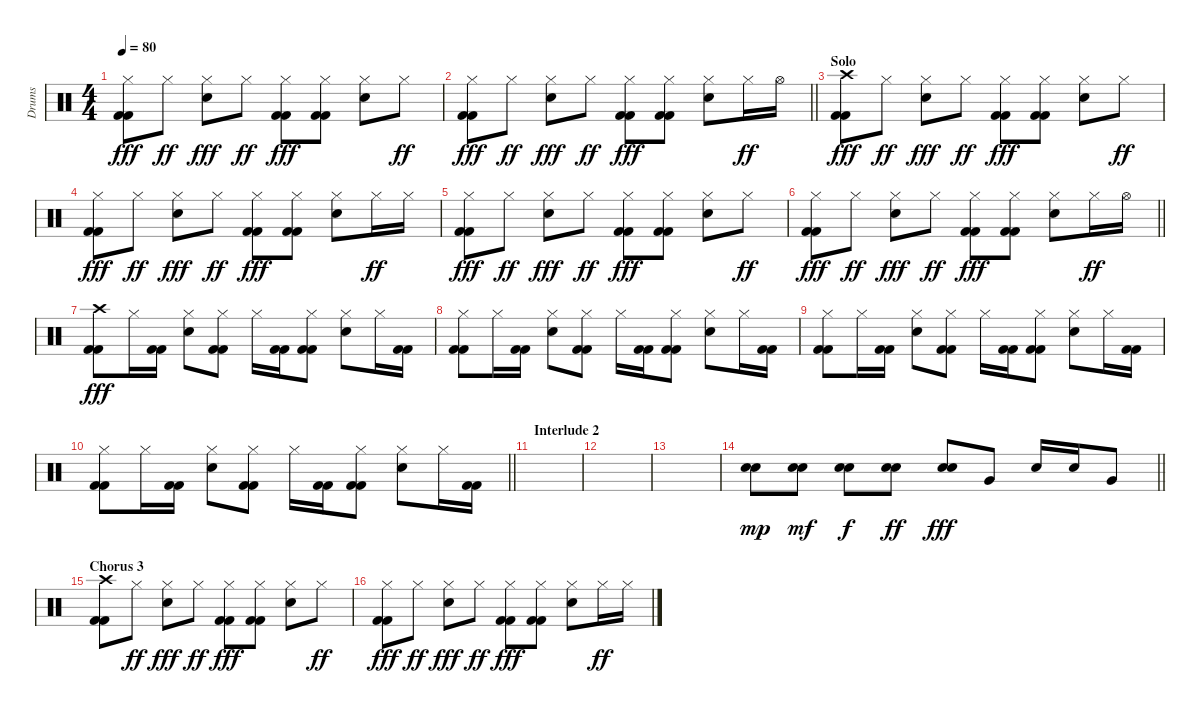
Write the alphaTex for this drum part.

\track ("Drums" "Drums") {instrument percussion}
\staff {score}
\articulation defaults
\ts (4 4)
\tempo 80
\clef neutral
\ks c
("Hi-Hat (closed)" "Kick (hit) 2" "Kick (hit) 2").8{dy fff} "Hi-Hat (closed)".8{dy ff} ("Hi-Hat (closed)" "Electric Snare (hit)").8{dy fff} "Hi-Hat (closed)".8{dy ff} ("Hi-Hat (closed)" "Kick (hit) 2" "Kick (hit) 2").8{dy fff} ("Hi-Hat (closed)" "Kick (hit) 2" "Kick (hit) 2").8 ("Hi-Hat (closed)" "Electric Snare (hit)").8 "Hi-Hat (closed)".8{dy ff} |
\barLineRight lightlight
("Hi-Hat (closed)" "Kick (hit) 2" "Kick (hit) 2").8{dy fff} "Hi-Hat (closed)".8{dy ff} ("Hi-Hat (closed)" "Electric Snare (hit)").8{dy fff} "Hi-Hat (closed)".8{dy ff} ("Hi-Hat (closed)" "Kick (hit) 2" "Kick (hit) 2").8{dy fff} ("Hi-Hat (closed)" "Kick (hit) 2" "Kick (hit) 2").8 ("Hi-Hat (closed)" "Electric Snare (hit)").8 "Hi-Hat (closed)".16{dy ff} "Hi-Hat (open)".16 |
\section ("" "Solo")
("Crash high (hit)" "Kick (hit) 2" "Kick (hit) 2").8{dy fff} "Hi-Hat (closed)".8{dy ff} ("Hi-Hat (closed)" "Electric Snare (hit)").8{dy fff} "Hi-Hat (closed)".8{dy ff} ("Hi-Hat (closed)" "Kick (hit) 2" "Kick (hit) 2").8{dy fff} ("Hi-Hat (closed)" "Kick (hit) 2" "Kick (hit) 2").8 ("Hi-Hat (closed)" "Electric Snare (hit)").8 "Hi-Hat (closed)".8{dy ff} |
("Hi-Hat (closed)" "Kick (hit) 2" "Kick (hit) 2").8{dy fff} "Hi-Hat (closed)".8{dy ff} ("Hi-Hat (closed)" "Electric Snare (hit)").8{dy fff} "Hi-Hat (closed)".8{dy ff} ("Hi-Hat (closed)" "Kick (hit) 2" "Kick (hit) 2").8{dy fff} ("Hi-Hat (closed)" "Kick (hit) 2" "Kick (hit) 2").8 ("Hi-Hat (closed)" "Electric Snare (hit)").8 "Hi-Hat (closed)".16{dy ff} "Hi-Hat (closed)".16 |
("Hi-Hat (closed)" "Kick (hit) 2" "Kick (hit) 2").8{dy fff} "Hi-Hat (closed)".8{dy ff} ("Hi-Hat (closed)" "Electric Snare (hit)").8{dy fff} "Hi-Hat (closed)".8{dy ff} ("Hi-Hat (closed)" "Kick (hit) 2" "Kick (hit) 2").8{dy fff} ("Hi-Hat (closed)" "Kick (hit) 2" "Kick (hit) 2").8 ("Hi-Hat (closed)" "Electric Snare (hit)").8 "Hi-Hat (closed)".8{dy ff} |
\barLineRight lightlight
("Hi-Hat (closed)" "Kick (hit) 2" "Kick (hit) 2").8{dy fff} "Hi-Hat (closed)".8{dy ff} ("Hi-Hat (closed)" "Electric Snare (hit)").8{dy fff} "Hi-Hat (closed)".8{dy ff} ("Hi-Hat (closed)" "Kick (hit) 2" "Kick (hit) 2").8{dy fff} ("Hi-Hat (closed)" "Kick (hit) 2" "Kick (hit) 2").8 ("Hi-Hat (closed)" "Electric Snare (hit)").8 "Hi-Hat (closed)".16{dy ff} "Hi-Hat (open)".16 |
("Crash high (hit)" "Kick (hit) 2" "Kick (hit) 2").8{dy fff} "Hi-Hat (closed)".16 ("Kick (hit) 2" "Kick (hit) 2").16 ("Hi-Hat (closed)" "Electric Snare (hit)").8 ("Hi-Hat (closed)" "Kick (hit) 2" "Kick (hit) 2").8 "Hi-Hat (closed)".16 ("Kick (hit) 2" "Kick (hit) 2").16 ("Hi-Hat (closed)" "Kick (hit) 2" "Kick (hit) 2").8 ("Hi-Hat (closed)" "Electric Snare (hit)").8 "Hi-Hat (closed)".16 ("Kick (hit) 2" "Kick (hit) 2").16 |
("Hi-Hat (closed)" "Kick (hit) 2" "Kick (hit) 2").8 "Hi-Hat (closed)".16 ("Kick (hit) 2" "Kick (hit) 2").16 ("Hi-Hat (closed)" "Electric Snare (hit)").8 ("Hi-Hat (closed)" "Kick (hit) 2" "Kick (hit) 2").8 "Hi-Hat (closed)".16 ("Kick (hit) 2" "Kick (hit) 2").16 ("Hi-Hat (closed)" "Kick (hit) 2" "Kick (hit) 2").8 ("Hi-Hat (closed)" "Electric Snare (hit)").8 "Hi-Hat (closed)".16 ("Kick (hit) 2" "Kick (hit) 2").16 |
("Hi-Hat (closed)" "Kick (hit) 2" "Kick (hit) 2").8 "Hi-Hat (closed)".16 ("Kick (hit) 2" "Kick (hit) 2").16 ("Hi-Hat (closed)" "Electric Snare (hit)").8 ("Hi-Hat (closed)" "Kick (hit) 2" "Kick (hit) 2").8 "Hi-Hat (closed)".16 ("Kick (hit) 2" "Kick (hit) 2").16 ("Hi-Hat (closed)" "Kick (hit) 2" "Kick (hit) 2").8 ("Hi-Hat (closed)" "Electric Snare (hit)").8 "Hi-Hat (closed)".16 ("Kick (hit) 2" "Kick (hit) 2").16 |
\barLineRight lightlight
("Hi-Hat (closed)" "Kick (hit) 2" "Kick (hit) 2").8 "Hi-Hat (closed)".16 ("Kick (hit) 2" "Kick (hit) 2").16 ("Hi-Hat (closed)" "Electric Snare (hit)").8 ("Hi-Hat (closed)" "Kick (hit) 2" "Kick (hit) 2").8 "Hi-Hat (closed)".16 ("Kick (hit) 2" "Kick (hit) 2").16 ("Hi-Hat (closed)" "Kick (hit) 2" "Kick (hit) 2").8 ("Hi-Hat (closed)" "Electric Snare (hit)").8 "Hi-Hat (closed)".16 ("Kick (hit) 2" "Kick (hit) 2").16 |
\section ("" "Interlude 2")
|
|
|
\barLineRight lightlight
("Electric Snare (hit)" "Electric Snare (hit)").8{dy mp} ("Electric Snare (hit)" "Electric Snare (hit)").8{dy mf} ("Electric Snare (hit)" "Electric Snare (hit)").8{dy f} ("Electric Snare (hit)" "Electric Snare (hit)").8{dy ff} ("Electric Snare (hit)" "Electric Snare (hit)").8{dy fff} "Very Low Tom (hit)".8 "Electric Snare (hit)".16 "Electric Snare (hit)".16 "Very Low Tom (hit)".8 |
\section ("" "Chorus 3")
("Crash high (hit)" "Kick (hit) 2" "Kick (hit) 2").8 "Hi-Hat (closed)".8{dy ff} ("Hi-Hat (closed)" "Electric Snare (hit)").8{dy fff} "Hi-Hat (closed)".8{dy ff} ("Hi-Hat (closed)" "Kick (hit) 2" "Kick (hit) 2").8{dy fff} ("Hi-Hat (closed)" "Kick (hit) 2" "Kick (hit) 2").8 ("Hi-Hat (closed)" "Electric Snare (hit)").8 "Hi-Hat (closed)".8{dy ff} |
("Hi-Hat (closed)" "Kick (hit) 2" "Kick (hit) 2").8{dy fff} "Hi-Hat (closed)".8{dy ff} ("Hi-Hat (closed)" "Electric Snare (hit)").8{dy fff} "Hi-Hat (closed)".8{dy ff} ("Hi-Hat (closed)" "Kick (hit) 2" "Kick (hit) 2").8{dy fff} ("Hi-Hat (closed)" "Kick (hit) 2" "Kick (hit) 2").8 ("Hi-Hat (closed)" "Electric Snare (hit)").8 "Hi-Hat (closed)".16{dy ff} "Hi-Hat (closed)".16
